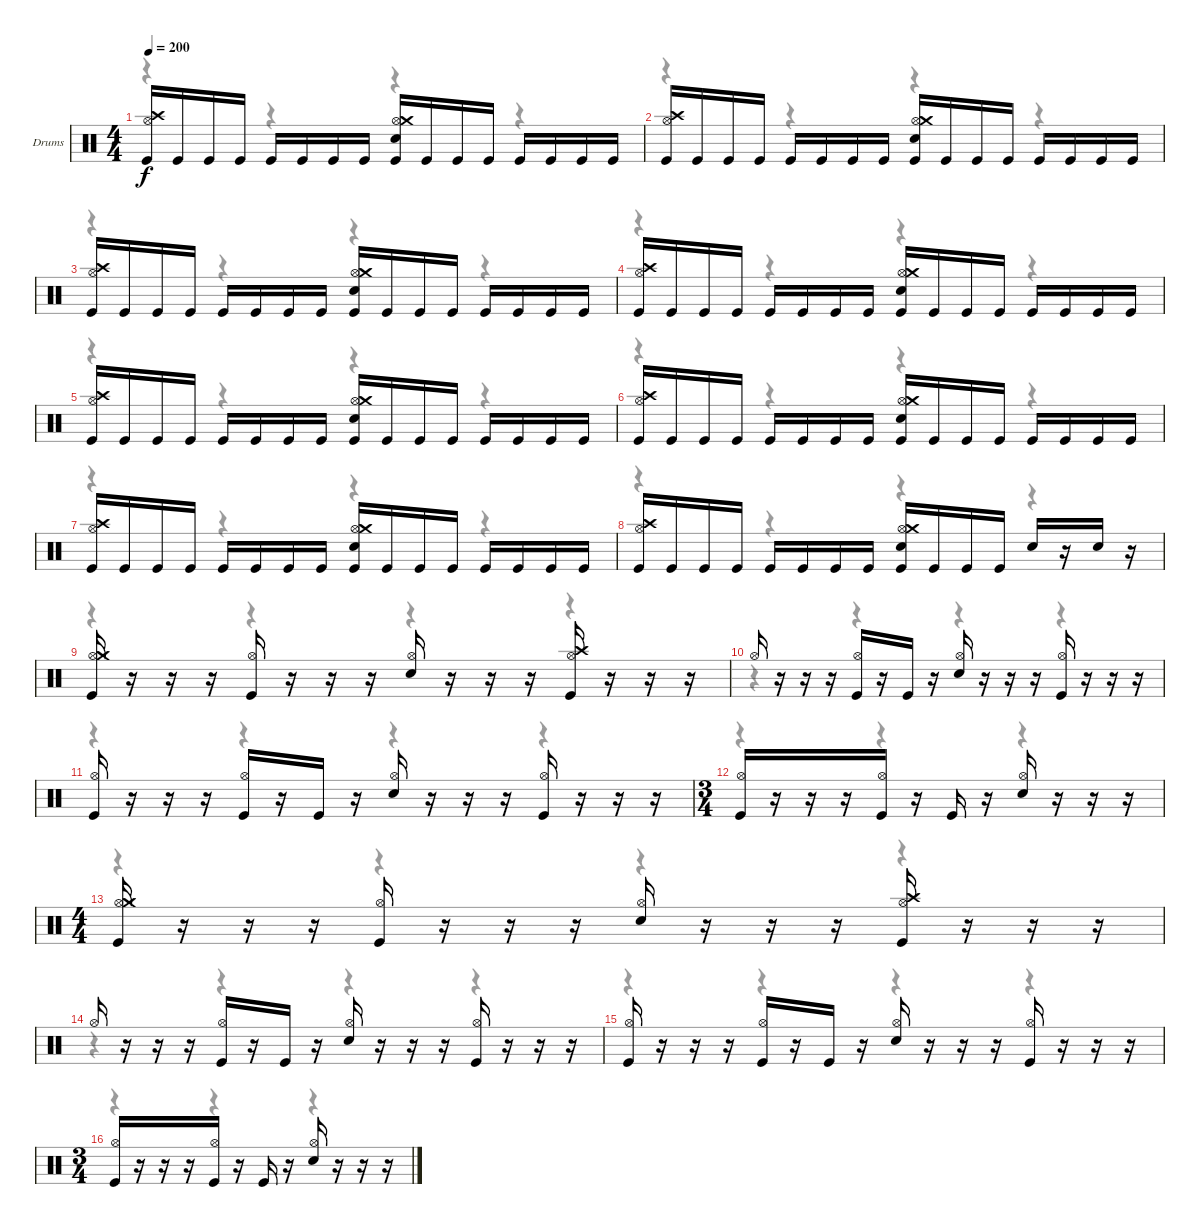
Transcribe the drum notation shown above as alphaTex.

\bracketExtendMode nobrackets
\firstSystemTrackNameOrientation horizontal
\otherSystemsTrackNameOrientation horizontal
\track ("Drumkit" "Drums") {instrument percussion}
\staff {score}
\articulation defaults
\voice
\ts (4 4)
\tempo 200
\clef neutral
\ks c
("Hi-Hat (open)" "Kick (hit)" "Crash high (hit)").16{dy f} "Kick (hit)".16 "Kick (hit)".16 "Kick (hit)".16 "Kick (hit)".16 "Kick (hit)".16 "Kick (hit)".16 "Kick (hit)".16 ("Hi-Hat (open)" "Kick (hit)" "Snare (hit) 2" "Crash medium (hit)").16 "Kick (hit)".16 "Kick (hit)".16 "Kick (hit)".16 "Kick (hit)".16 "Kick (hit)".16 "Kick (hit)".16 "Kick (hit)".16 |
("Hi-Hat (open)" "Kick (hit)" "Crash high (hit)").16 "Kick (hit)".16 "Kick (hit)".16 "Kick (hit)".16 "Kick (hit)".16 "Kick (hit)".16 "Kick (hit)".16 "Kick (hit)".16 ("Hi-Hat (open)" "Kick (hit)" "Snare (hit) 2" "Crash medium (hit)").16 "Kick (hit)".16 "Kick (hit)".16 "Kick (hit)".16 "Kick (hit)".16 "Kick (hit)".16 "Kick (hit)".16 "Kick (hit)".16 |
("Hi-Hat (open)" "Kick (hit)" "Crash high (hit)").16 "Kick (hit)".16 "Kick (hit)".16 "Kick (hit)".16 "Kick (hit)".16 "Kick (hit)".16 "Kick (hit)".16 "Kick (hit)".16 ("Hi-Hat (open)" "Kick (hit)" "Snare (hit) 2" "Crash medium (hit)").16 "Kick (hit)".16 "Kick (hit)".16 "Kick (hit)".16 "Kick (hit)".16 "Kick (hit)".16 "Kick (hit)".16 "Kick (hit)".16 |
("Hi-Hat (open)" "Kick (hit)" "Crash high (hit)").16 "Kick (hit)".16 "Kick (hit)".16 "Kick (hit)".16 "Kick (hit)".16 "Kick (hit)".16 "Kick (hit)".16 "Kick (hit)".16 ("Hi-Hat (open)" "Kick (hit)" "Snare (hit) 2" "Crash medium (hit)").16 "Kick (hit)".16 "Kick (hit)".16 "Kick (hit)".16 "Kick (hit)".16 "Kick (hit)".16 "Kick (hit)".16 "Kick (hit)".16 |
("Hi-Hat (open)" "Kick (hit)" "Crash high (hit)").16 "Kick (hit)".16 "Kick (hit)".16 "Kick (hit)".16 "Kick (hit)".16 "Kick (hit)".16 "Kick (hit)".16 "Kick (hit)".16 ("Hi-Hat (open)" "Kick (hit)" "Snare (hit) 2" "Crash medium (hit)").16 "Kick (hit)".16 "Kick (hit)".16 "Kick (hit)".16 "Kick (hit)".16 "Kick (hit)".16 "Kick (hit)".16 "Kick (hit)".16 |
("Hi-Hat (open)" "Kick (hit)" "Crash high (hit)").16 "Kick (hit)".16 "Kick (hit)".16 "Kick (hit)".16 "Kick (hit)".16 "Kick (hit)".16 "Kick (hit)".16 "Kick (hit)".16 ("Hi-Hat (open)" "Kick (hit)" "Snare (hit) 2" "Crash medium (hit)").16 "Kick (hit)".16 "Kick (hit)".16 "Kick (hit)".16 "Kick (hit)".16 "Kick (hit)".16 "Kick (hit)".16 "Kick (hit)".16 |
("Hi-Hat (open)" "Kick (hit)" "Crash high (hit)").16 "Kick (hit)".16 "Kick (hit)".16 "Kick (hit)".16 "Kick (hit)".16 "Kick (hit)".16 "Kick (hit)".16 "Kick (hit)".16 ("Hi-Hat (open)" "Kick (hit)" "Snare (hit) 2" "Crash medium (hit)").16 "Kick (hit)".16 "Kick (hit)".16 "Kick (hit)".16 "Kick (hit)".16 "Kick (hit)".16 "Kick (hit)".16 "Kick (hit)".16 |
("Hi-Hat (open)" "Kick (hit)" "Crash high (hit)").16 "Kick (hit)".16 "Kick (hit)".16 "Kick (hit)".16 "Kick (hit)".16 "Kick (hit)".16 "Kick (hit)".16 "Kick (hit)".16 ("Hi-Hat (open)" "Kick (hit)" "Snare (hit) 2" "Crash medium (hit)").16 "Kick (hit)".16 "Kick (hit)".16 "Kick (hit)".16 "Snare (hit) 2".16 r.16 "Snare (hit) 2".16 r.16 |
("Kick (hit)" "Hi-Hat (open)" "Crash medium (hit)").16 r.16 r.16 r.16 ("Kick (hit)" "Hi-Hat (open)").16 r.16 r.16 r.16 ("Snare (hit) 2" "Hi-Hat (open)").16 r.16 r.16 r.16 ("Kick (hit)" "Hi-Hat (open)" "Crash high (hit)").16 r.16 r.16 r.16 |
"Hi-Hat (open)".16 r.16 r.16 r.16 ("Kick (hit)" "Hi-Hat (open)").16 r.16 "Kick (hit)".16 r.16 ("Hi-Hat (open)" "Snare (hit) 2").16 r.16 r.16 r.16 ("Hi-Hat (open)" "Kick (hit)").16 r.16 r.16 r.16 |
("Kick (hit)" "Hi-Hat (open)").16 r.16 r.16 r.16 ("Kick (hit)" "Hi-Hat (open)").16 r.16 "Kick (hit)".16 r.16 ("Snare (hit) 2" "Hi-Hat (open)").16 r.16 r.16 r.16 ("Kick (hit)" "Hi-Hat (open)").16 r.16 r.16 r.16 |
\ts (3 4)
\beaming (8 3 1 1 1)
("Kick (hit)" "Hi-Hat (open)").16 r.16 r.16 r.16 ("Kick (hit)" "Hi-Hat (open)").16 r.16 "Kick (hit)".16 r.16 ("Snare (hit) 2" "Hi-Hat (open)").16 r.16 r.16 r.16 |
\ts (4 4)
\beaming (8 2 2 2 2)
("Kick (hit)" "Hi-Hat (open)" "Crash medium (hit)").16 r.16 r.16 r.16 ("Kick (hit)" "Hi-Hat (open)").16 r.16 r.16 r.16 ("Snare (hit) 2" "Hi-Hat (open)").16 r.16 r.16 r.16 ("Kick (hit)" "Hi-Hat (open)" "Crash high (hit)").16 r.16 r.16 r.16 |
"Hi-Hat (open)".16 r.16 r.16 r.16 ("Kick (hit)" "Hi-Hat (open)").16 r.16 "Kick (hit)".16 r.16 ("Hi-Hat (open)" "Snare (hit) 2").16 r.16 r.16 r.16 ("Hi-Hat (open)" "Kick (hit)").16 r.16 r.16 r.16 |
("Kick (hit)" "Hi-Hat (open)").16 r.16 r.16 r.16 ("Kick (hit)" "Hi-Hat (open)").16 r.16 "Kick (hit)".16 r.16 ("Snare (hit) 2" "Hi-Hat (open)").16 r.16 r.16 r.16 ("Kick (hit)" "Hi-Hat (open)").16 r.16 r.16 r.16 |
\ts (3 4)
\beaming (8 3 1 1 1)
("Kick (hit)" "Hi-Hat (open)").16 r.16 r.16 r.16 ("Kick (hit)" "Hi-Hat (open)").16 r.16 "Kick (hit)".16 r.16 ("Snare (hit) 2" "Hi-Hat (open)").16 r.16 r.16 r.16
\voice
\clef neutral
\ottava regular
\simile none
\ks c
r.4{dy mf} r.4 r.4 r.4 |
r.4 r.4 r.4 r.4 |
r.4 r.4 r.4 r.4 |
r.4 r.4 r.4 r.4 |
r.4 r.4 r.4 r.4 |
r.4 r.4 r.4 r.4 |
r.4 r.4 r.4 r.4 |
r.4 r.4 r.4 r.4 |
r.4 r.4 r.4 r.4 |
r.4 r.4 r.4 r.4 |
r.4 r.4 r.4 r.4 |
r.4 r.4 r.4 |
r.4 r.4 r.4 r.4 |
r.4 r.4 r.4 r.4 |
r.4 r.4 r.4 r.4 |
r.4 r.4 r.4
